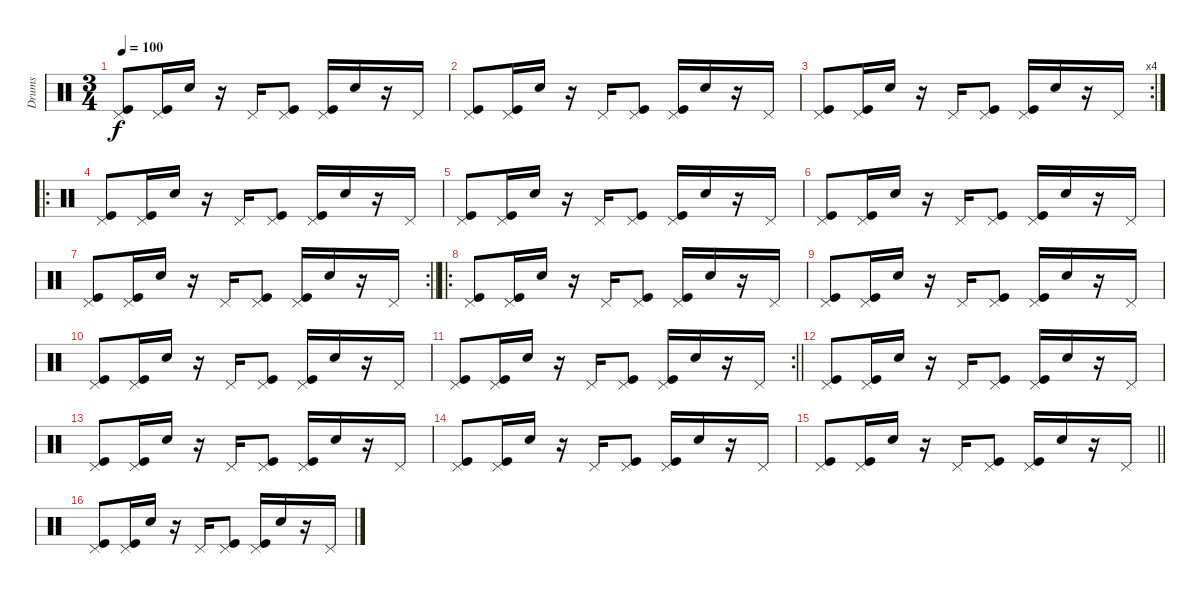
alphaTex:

\track ("Drums" "Drums") {instrument percussion}
\staff {score}
\articulation defaults
\ts (3 4)
\tempo 100
\clef neutral
\ks c
("Pedal Hi-Hat (hit)" "Kick (hit)").8{dy f} ("Pedal Hi-Hat (hit)" "Kick (hit)").16 "Snare (hit) 2".16 r.16 "Pedal Hi-Hat (hit)".16 ("Pedal Hi-Hat (hit)" "Kick (hit)").8 ("Pedal Hi-Hat (hit)" "Kick (hit)").16 "Snare (hit) 2".16 r.16 "Pedal Hi-Hat (hit)".16 |
("Pedal Hi-Hat (hit)" "Kick (hit)").8 ("Pedal Hi-Hat (hit)" "Kick (hit)").16 "Snare (hit) 2".16 r.16 "Pedal Hi-Hat (hit)".16 ("Pedal Hi-Hat (hit)" "Kick (hit)").8 ("Pedal Hi-Hat (hit)" "Kick (hit)").16 "Snare (hit) 2".16 r.16 "Pedal Hi-Hat (hit)".16 |
\rc 4
("Pedal Hi-Hat (hit)" "Kick (hit)").8 ("Pedal Hi-Hat (hit)" "Kick (hit)").16 "Snare (hit) 2".16 r.16 "Pedal Hi-Hat (hit)".16 ("Pedal Hi-Hat (hit)" "Kick (hit)").8 ("Pedal Hi-Hat (hit)" "Kick (hit)").16 "Snare (hit) 2".16 r.16 "Pedal Hi-Hat (hit)".16 |
\ro
("Pedal Hi-Hat (hit)" "Kick (hit)").8 ("Pedal Hi-Hat (hit)" "Kick (hit)").16 "Snare (hit) 2".16 r.16 "Pedal Hi-Hat (hit)".16 ("Pedal Hi-Hat (hit)" "Kick (hit)").8 ("Pedal Hi-Hat (hit)" "Kick (hit)").16 "Snare (hit) 2".16 r.16 "Pedal Hi-Hat (hit)".16 |
("Pedal Hi-Hat (hit)" "Kick (hit)").8 ("Pedal Hi-Hat (hit)" "Kick (hit)").16 "Snare (hit) 2".16 r.16 "Pedal Hi-Hat (hit)".16 ("Pedal Hi-Hat (hit)" "Kick (hit)").8 ("Pedal Hi-Hat (hit)" "Kick (hit)").16 "Snare (hit) 2".16 r.16 "Pedal Hi-Hat (hit)".16 |
("Pedal Hi-Hat (hit)" "Kick (hit)").8 ("Pedal Hi-Hat (hit)" "Kick (hit)").16 "Snare (hit) 2".16 r.16 "Pedal Hi-Hat (hit)".16 ("Pedal Hi-Hat (hit)" "Kick (hit)").8 ("Pedal Hi-Hat (hit)" "Kick (hit)").16 "Snare (hit) 2".16 r.16 "Pedal Hi-Hat (hit)".16 |
\rc 2
\barLineRight lightlight
("Pedal Hi-Hat (hit)" "Kick (hit)").8 ("Pedal Hi-Hat (hit)" "Kick (hit)").16 "Snare (hit) 2".16 r.16 "Pedal Hi-Hat (hit)".16 ("Pedal Hi-Hat (hit)" "Kick (hit)").8 ("Pedal Hi-Hat (hit)" "Kick (hit)").16 "Snare (hit) 2".16 r.16 "Pedal Hi-Hat (hit)".16 |
\ro
("Pedal Hi-Hat (hit)" "Kick (hit)").8 ("Pedal Hi-Hat (hit)" "Kick (hit)").16 "Snare (hit) 2".16 r.16 "Pedal Hi-Hat (hit)".16 ("Pedal Hi-Hat (hit)" "Kick (hit)").8 ("Pedal Hi-Hat (hit)" "Kick (hit)").16 "Snare (hit) 2".16 r.16 "Pedal Hi-Hat (hit)".16 |
("Pedal Hi-Hat (hit)" "Kick (hit)").8 ("Pedal Hi-Hat (hit)" "Kick (hit)").16 "Snare (hit) 2".16 r.16 "Pedal Hi-Hat (hit)".16 ("Pedal Hi-Hat (hit)" "Kick (hit)").8 ("Pedal Hi-Hat (hit)" "Kick (hit)").16 "Snare (hit) 2".16 r.16 "Pedal Hi-Hat (hit)".16 |
("Pedal Hi-Hat (hit)" "Kick (hit)").8 ("Pedal Hi-Hat (hit)" "Kick (hit)").16 "Snare (hit) 2".16 r.16 "Pedal Hi-Hat (hit)".16 ("Pedal Hi-Hat (hit)" "Kick (hit)").8 ("Pedal Hi-Hat (hit)" "Kick (hit)").16 "Snare (hit) 2".16 r.16 "Pedal Hi-Hat (hit)".16 |
\rc 2
\barLineRight lightlight
("Pedal Hi-Hat (hit)" "Kick (hit)").8 ("Pedal Hi-Hat (hit)" "Kick (hit)").16 "Snare (hit) 2".16 r.16 "Pedal Hi-Hat (hit)".16 ("Pedal Hi-Hat (hit)" "Kick (hit)").8 ("Pedal Hi-Hat (hit)" "Kick (hit)").16 "Snare (hit) 2".16 r.16 "Pedal Hi-Hat (hit)".16 |
("Pedal Hi-Hat (hit)" "Kick (hit)").8{volume 0} ("Pedal Hi-Hat (hit)" "Kick (hit)").16 "Snare (hit) 2".16 r.16 "Pedal Hi-Hat (hit)".16 ("Pedal Hi-Hat (hit)" "Kick (hit)").8 ("Pedal Hi-Hat (hit)" "Kick (hit)").16 "Snare (hit) 2".16 r.16 "Pedal Hi-Hat (hit)".16 |
("Pedal Hi-Hat (hit)" "Kick (hit)").8 ("Pedal Hi-Hat (hit)" "Kick (hit)").16 "Snare (hit) 2".16 r.16 "Pedal Hi-Hat (hit)".16 ("Pedal Hi-Hat (hit)" "Kick (hit)").8 ("Pedal Hi-Hat (hit)" "Kick (hit)").16 "Snare (hit) 2".16 r.16 "Pedal Hi-Hat (hit)".16 |
("Pedal Hi-Hat (hit)" "Kick (hit)").8 ("Pedal Hi-Hat (hit)" "Kick (hit)").16 "Snare (hit) 2".16 r.16 "Pedal Hi-Hat (hit)".16 ("Pedal Hi-Hat (hit)" "Kick (hit)").8 ("Pedal Hi-Hat (hit)" "Kick (hit)").16 "Snare (hit) 2".16 r.16 "Pedal Hi-Hat (hit)".16 |
\barLineRight lightlight
("Pedal Hi-Hat (hit)" "Kick (hit)").8 ("Pedal Hi-Hat (hit)" "Kick (hit)").16 "Snare (hit) 2".16 r.16 "Pedal Hi-Hat (hit)".16 ("Pedal Hi-Hat (hit)" "Kick (hit)").8 ("Pedal Hi-Hat (hit)" "Kick (hit)").16 "Snare (hit) 2".16 r.16 "Pedal Hi-Hat (hit)".16 |
("Pedal Hi-Hat (hit)" "Kick (hit)").8 ("Pedal Hi-Hat (hit)" "Kick (hit)").16 "Snare (hit) 2".16 r.16 "Pedal Hi-Hat (hit)".16 ("Pedal Hi-Hat (hit)" "Kick (hit)").8 ("Pedal Hi-Hat (hit)" "Kick (hit)").16 "Snare (hit) 2".16 r.16 "Pedal Hi-Hat (hit)".16
